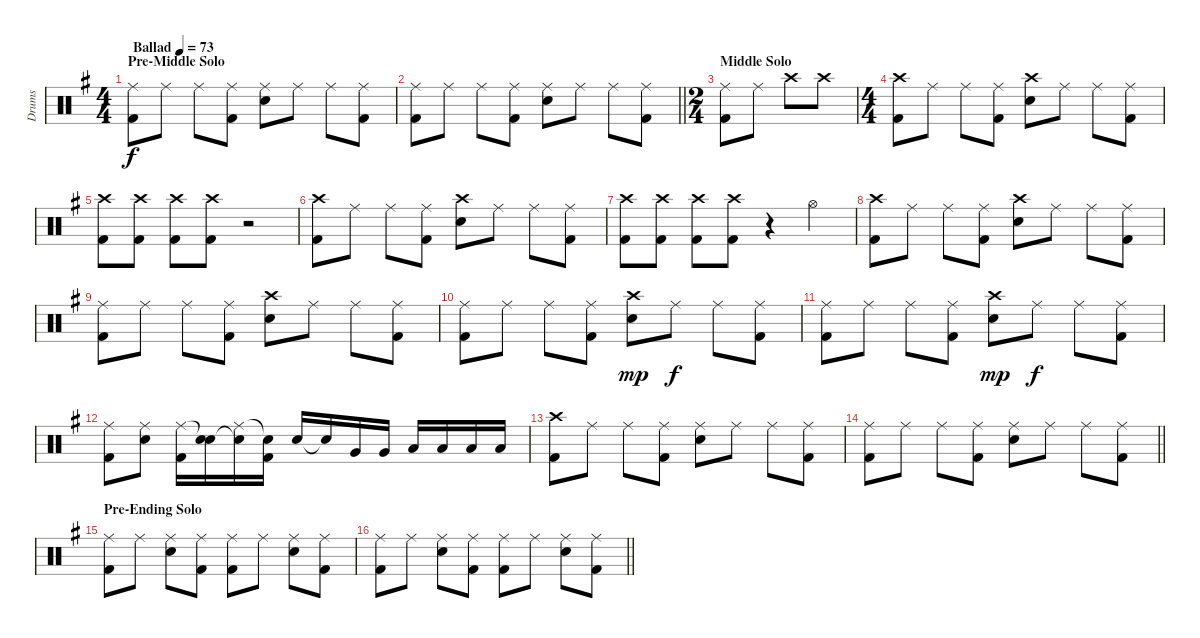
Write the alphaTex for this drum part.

\track ("Drums" "Drums") {instrument percussion}
\staff {score}
\articulation defaults
\ts (4 4)
\section ("" "Pre-Middle Solo")
\tempo (73 "Ballad")
\clef neutral
\ks eminor
("Ride (middle)" "Kick (hit) 2").8{dy f} "Ride (middle)".8 "Ride (middle)".8 ("Ride (middle)" "Kick (hit) 2").8 ("Ride (middle)" "Electric Snare (hit)").8 "Ride (middle)".8 "Ride (middle)".8 ("Ride (middle)" "Kick (hit) 2").8 |
\barLineRight lightlight
("Ride (middle)" "Kick (hit) 2").8 "Ride (middle)".8 "Ride (middle)".8 ("Ride (middle)" "Kick (hit) 2").8 ("Ride (middle)" "Electric Snare (hit)").8 "Ride (middle)".8 "Ride (middle)".8 ("Ride (middle)" "Kick (hit) 2").8 |
\ts (2 4)
\section ("" "Middle Solo")
("Ride (middle)" "Kick (hit) 2").8 "Ride (middle)".8 "Crash high (hit)".8 "Crash high (hit)".8 |
\ts (4 4)
("Crash high (hit)" "Kick (hit) 2").8 "Ride (middle)".8 "Ride (middle)".8 ("Ride (middle)" "Kick (hit) 2").8 ("Crash high (hit)" "Electric Snare (hit)").8 "Ride (middle)".8 "Ride (middle)".8 ("Ride (middle)" "Kick (hit) 2").8 |
("Crash high (hit)" "Kick (hit) 2").8 ("Crash high (hit)" "Kick (hit) 2").8 ("Crash high (hit)" "Kick (hit) 2").8 ("Crash high (hit)" "Kick (hit) 2").8 r.2 |
("Crash high (hit)" "Kick (hit) 2").8 "Ride (middle)".8 "Ride (middle)".8 ("Ride (middle)" "Kick (hit) 2").8 ("Crash high (hit)" "Electric Snare (hit)").8 "Ride (middle)".8 "Ride (middle)".8 ("Ride (middle)" "Kick (hit) 2").8 |
("Crash high (hit)" "Kick (hit) 2").8 ("Crash high (hit)" "Kick (hit) 2").8 ("Crash high (hit)" "Kick (hit) 2").8 ("Crash high (hit)" "Kick (hit) 2").8 r.4 "Hi-Hat (open)".4 |
("Crash high (hit)" "Kick (hit) 2").8 "Ride (middle)".8 "Ride (middle)".8 ("Ride (middle)" "Kick (hit) 2").8 ("Crash high (hit)" "Electric Snare (hit)").8 "Ride (middle)".8 "Ride (middle)".8 ("Ride (middle)" "Kick (hit) 2").8 |
("Ride (middle)" "Kick (hit) 2").8 "Ride (middle)".8 "Ride (middle)".8 ("Ride (middle)" "Kick (hit) 2").8 ("Crash high (hit)" "Electric Snare (hit)").8 "Ride (middle)".8 "Ride (middle)".8 ("Ride (middle)" "Kick (hit) 2").8 |
("Ride (middle)" "Kick (hit) 2").8 "Ride (middle)".8 "Ride (middle)".8 ("Ride (middle)" "Kick (hit) 2").8 ("Crash high (hit)" "Electric Snare (hit)").8{dy mp} "Ride (middle)".8{dy f} "Ride (middle)".8 ("Ride (middle)" "Kick (hit) 2").8 |
("Ride (middle)" "Kick (hit) 2").8 "Ride (middle)".8 "Ride (middle)".8 ("Ride (middle)" "Kick (hit) 2").8 ("Crash high (hit)" "Electric Snare (hit)").8{dy mp} "Ride (middle)".8{dy f} "Ride (middle)".8 ("Ride (middle)" "Kick (hit) 2").8 |
("Ride (middle)" "Kick (hit) 2").8 ("Ride (middle)" "Electric Snare (hit)").8 ("Ride (middle)" "Kick (hit) 2").16 ("Snare (hit)"{t} "Electric Snare (hit)").16 ("Ride (middle)" "Snare (hit)"{t}).16 ("Snare (hit)"{t} "Kick (hit) 2").16 "Electric Snare (hit)".16 "Snare (hit)"{t}.16 "Very Low Tom (hit)".16 "Very Low Tom (hit)".16 "Low Tom (hit)".16 "Low Tom (hit)".16 "Low Floor Tom (hit)".16 "Low Floor Tom (hit)".16 |
("Crash high (hit)" "Kick (hit) 2").8 "Ride (middle)".8 "Ride (middle)".8 ("Ride (middle)" "Kick (hit) 2").8 ("Ride (middle)" "Electric Snare (hit)").8 "Ride (middle)".8 "Ride (middle)".8 ("Ride (middle)" "Kick (hit) 2").8 |
\barLineRight lightlight
("Ride (middle)" "Kick (hit) 2").8 "Ride (middle)".8 "Ride (middle)".8 ("Ride (middle)" "Kick (hit) 2").8 ("Ride (middle)" "Electric Snare (hit)").8 "Ride (middle)".8 "Ride (middle)".8 ("Ride (middle)" "Kick (hit) 2").8 |
\section ("" "Pre-Ending Solo")
("Ride (middle)" "Kick (hit) 2").8{volume 13} "Ride (middle)".8 ("Ride (middle)" "Electric Snare (hit)").8 ("Ride (middle)" "Kick (hit) 2").8 ("Ride (middle)" "Kick (hit) 2").8 "Ride (middle)".8 ("Ride (middle)" "Electric Snare (hit)").8 ("Ride (middle)" "Kick (hit) 2").8 |
\barLineRight lightlight
("Ride (middle)" "Kick (hit) 2").8 "Ride (middle)".8 ("Ride (middle)" "Electric Snare (hit)").8 ("Ride (middle)" "Kick (hit) 2").8 ("Ride (middle)" "Kick (hit) 2").8 "Ride (middle)".8 ("Ride (middle)" "Electric Snare (hit)").8 ("Ride (middle)" "Kick (hit) 2").8
